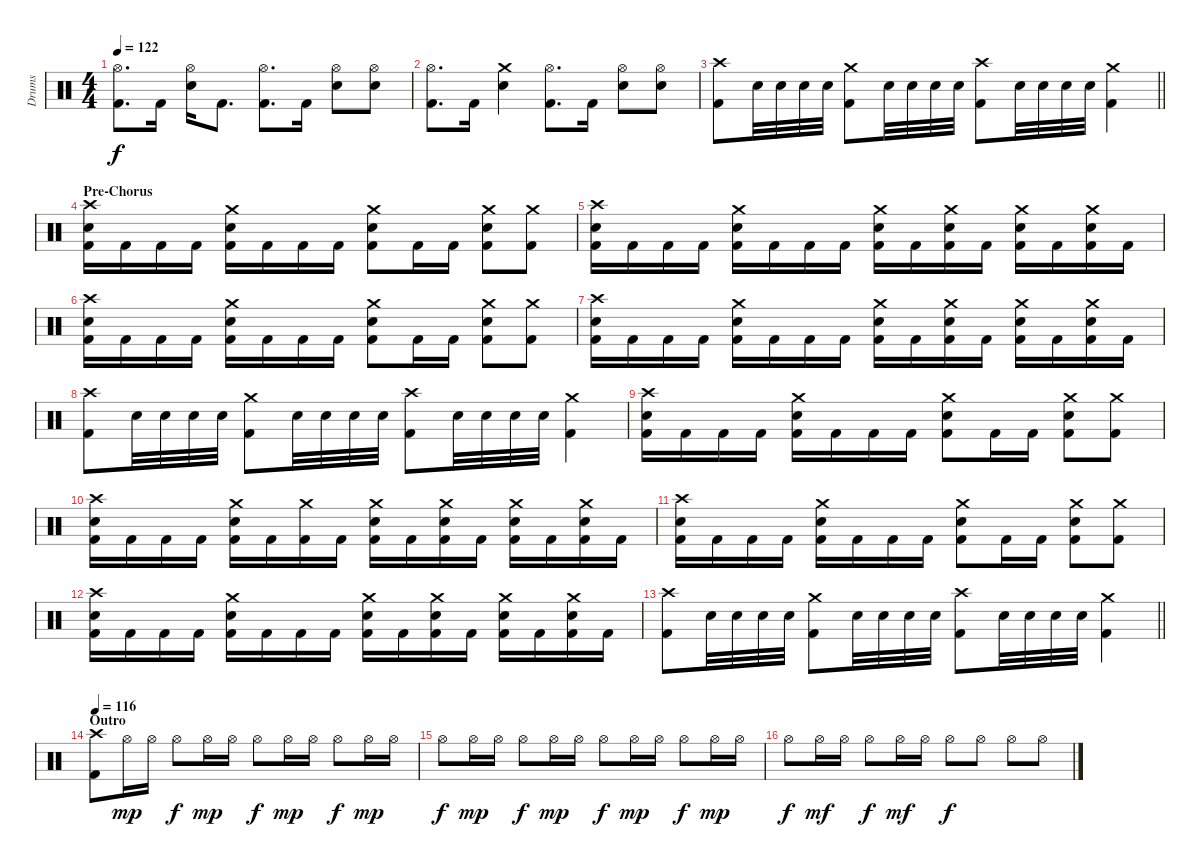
\track ("Drums" "Drums") {instrument percussion}
\staff {score}
\articulation defaults
\ts (4 4)
\tempo 122
\clef neutral
\ks c
("Hi-Hat (open)" "Kick (hit) 2").8{d dy f} "Kick (hit) 2".16 ("Hi-Hat (open)" "Snare (hit) 2").16 "Kick (hit) 2".8{d} ("Hi-Hat (open)" "Kick (hit) 2").8{d} "Kick (hit) 2".16 ("Hi-Hat (open)" "Snare (hit) 2").8 ("Hi-Hat (open)" "Snare (hit) 2").8 |
("Hi-Hat (open)" "Kick (hit) 2").8{d} "Kick (hit) 2".16 ("Crash medium (hit)" "Snare (hit) 2").4 ("Hi-Hat (open)" "Kick (hit) 2").8{d} "Kick (hit) 2".16 ("Hi-Hat (open)" "Snare (hit) 2").8 ("Hi-Hat (open)" "Snare (hit) 2").8 |
\barLineRight lightlight
("Crash high (hit)" "Kick (hit) 2").8 "Snare (hit) 2".32 "Snare (hit) 2".32 "Snare (hit) 2".32 "Snare (hit) 2".32 ("Crash medium (hit)" "Kick (hit) 2").8 "Snare (hit) 2".32 "Snare (hit) 2".32 "Snare (hit) 2".32 "Snare (hit) 2".32 ("Crash high (hit)" "Kick (hit) 2").8 "Snare (hit) 2".32 "Snare (hit) 2".32 "Snare (hit) 2".32 "Snare (hit) 2".32 ("Crash medium (hit)" "Kick (hit) 2").4 |
\section ("" "Pre-Chorus")
("Crash high (hit)" "Snare (hit) 2" "Kick (hit) 2").16 "Kick (hit) 2".16 "Kick (hit) 2".16 "Kick (hit) 2".16 ("Crash medium (hit)" "Snare (hit) 2" "Kick (hit) 2").16 "Kick (hit) 2".16 "Kick (hit) 2".16 "Kick (hit) 2".16 ("Crash medium (hit)" "Snare (hit) 2" "Kick (hit) 2").8 "Kick (hit) 2".16 "Kick (hit) 2".16 ("Crash medium (hit)" "Snare (hit) 2" "Kick (hit) 2").8 ("Crash medium (hit)" "Kick (hit) 2").8 |
("Crash high (hit)" "Snare (hit) 2" "Kick (hit) 2").16 "Kick (hit) 2".16 "Kick (hit) 2".16 "Kick (hit) 2".16 ("Crash medium (hit)" "Snare (hit) 2" "Kick (hit) 2").16 "Kick (hit) 2".16 "Kick (hit) 2".16 "Kick (hit) 2".16 ("Crash medium (hit)" "Snare (hit) 2" "Kick (hit) 2").16 "Kick (hit) 2".16 ("Crash medium (hit)" "Snare (hit) 2" "Kick (hit) 2").16 "Kick (hit) 2".16 ("Crash medium (hit)" "Snare (hit) 2" "Kick (hit) 2").16 "Kick (hit) 2".16 ("Crash medium (hit)" "Snare (hit) 2" "Kick (hit) 2").16 "Kick (hit) 2".16 |
("Crash high (hit)" "Snare (hit) 2" "Kick (hit) 2").16 "Kick (hit) 2".16 "Kick (hit) 2".16 "Kick (hit) 2".16 ("Crash medium (hit)" "Snare (hit) 2" "Kick (hit) 2").16 "Kick (hit) 2".16 "Kick (hit) 2".16 "Kick (hit) 2".16 ("Crash medium (hit)" "Snare (hit) 2" "Kick (hit) 2").8 "Kick (hit) 2".16 "Kick (hit) 2".16 ("Crash medium (hit)" "Snare (hit) 2" "Kick (hit) 2").8 ("Crash medium (hit)" "Kick (hit) 2").8 |
("Crash high (hit)" "Snare (hit) 2" "Kick (hit) 2").16 "Kick (hit) 2".16 "Kick (hit) 2".16 "Kick (hit) 2".16 ("Crash medium (hit)" "Snare (hit) 2" "Kick (hit) 2").16 "Kick (hit) 2".16 "Kick (hit) 2".16 "Kick (hit) 2".16 ("Crash medium (hit)" "Snare (hit) 2" "Kick (hit) 2").16 "Kick (hit) 2".16 ("Crash medium (hit)" "Snare (hit) 2" "Kick (hit) 2").16 "Kick (hit) 2".16 ("Crash medium (hit)" "Snare (hit) 2" "Kick (hit) 2").16 "Kick (hit) 2".16 ("Crash medium (hit)" "Snare (hit) 2" "Kick (hit) 2").16 "Kick (hit) 2".16 |
("Crash high (hit)" "Kick (hit) 2").8 "Snare (hit) 2".32 "Snare (hit) 2".32 "Snare (hit) 2".32 "Snare (hit) 2".32 ("Crash medium (hit)" "Kick (hit) 2").8 "Snare (hit) 2".32 "Snare (hit) 2".32 "Snare (hit) 2".32 "Snare (hit) 2".32 ("Crash high (hit)" "Kick (hit) 2").8 "Snare (hit) 2".32 "Snare (hit) 2".32 "Snare (hit) 2".32 "Snare (hit) 2".32 ("Crash medium (hit)" "Kick (hit) 2").4 |
("Crash high (hit)" "Snare (hit) 2" "Kick (hit) 2").16 "Kick (hit) 2".16 "Kick (hit) 2".16 "Kick (hit) 2".16 ("Crash medium (hit)" "Snare (hit) 2" "Kick (hit) 2").16 "Kick (hit) 2".16 "Kick (hit) 2".16 "Kick (hit) 2".16 ("Crash medium (hit)" "Snare (hit) 2" "Kick (hit) 2").8 "Kick (hit) 2".16 "Kick (hit) 2".16 ("Crash medium (hit)" "Snare (hit) 2" "Kick (hit) 2").8 ("Crash medium (hit)" "Kick (hit) 2").8 |
("Crash high (hit)" "Snare (hit) 2" "Kick (hit) 2").16 "Kick (hit) 2".16 "Kick (hit) 2".16 "Kick (hit) 2".16 ("Crash medium (hit)" "Snare (hit) 2" "Kick (hit) 2").16 "Kick (hit) 2".16 ("Crash medium (hit)" "Kick (hit) 2").16 "Kick (hit) 2".16 ("Crash medium (hit)" "Snare (hit) 2" "Kick (hit) 2").16 "Kick (hit) 2".16 ("Crash medium (hit)" "Snare (hit) 2" "Kick (hit) 2").16 "Kick (hit) 2".16 ("Crash medium (hit)" "Snare (hit) 2" "Kick (hit) 2").16 "Kick (hit) 2".16 ("Crash medium (hit)" "Snare (hit) 2" "Kick (hit) 2").16 "Kick (hit) 2".16 |
("Crash high (hit)" "Snare (hit) 2" "Kick (hit) 2").16 "Kick (hit) 2".16 "Kick (hit) 2".16 "Kick (hit) 2".16 ("Crash medium (hit)" "Snare (hit) 2" "Kick (hit) 2").16 "Kick (hit) 2".16 "Kick (hit) 2".16 "Kick (hit) 2".16 ("Crash medium (hit)" "Snare (hit) 2" "Kick (hit) 2").8 "Kick (hit) 2".16 "Kick (hit) 2".16 ("Crash medium (hit)" "Snare (hit) 2" "Kick (hit) 2").8 ("Crash medium (hit)" "Kick (hit) 2").8 |
("Crash high (hit)" "Snare (hit) 2" "Kick (hit) 2").16 "Kick (hit) 2".16 "Kick (hit) 2".16 "Kick (hit) 2".16 ("Crash medium (hit)" "Snare (hit) 2" "Kick (hit) 2").16 "Kick (hit) 2".16 "Kick (hit) 2".16 "Kick (hit) 2".16 ("Crash medium (hit)" "Snare (hit) 2" "Kick (hit) 2").16 "Kick (hit) 2".16 ("Crash medium (hit)" "Snare (hit) 2" "Kick (hit) 2").16 "Kick (hit) 2".16 ("Crash medium (hit)" "Snare (hit) 2" "Kick (hit) 2").16 "Kick (hit) 2".16 ("Crash medium (hit)" "Snare (hit) 2" "Kick (hit) 2").16 "Kick (hit) 2".16 |
\barLineRight lightlight
("Crash high (hit)" "Kick (hit) 2").8 "Snare (hit) 2".32 "Snare (hit) 2".32 "Snare (hit) 2".32 "Snare (hit) 2".32 ("Crash medium (hit)" "Kick (hit) 2").8 "Snare (hit) 2".32 "Snare (hit) 2".32 "Snare (hit) 2".32 "Snare (hit) 2".32 ("Crash high (hit)" "Kick (hit) 2").8 "Snare (hit) 2".32 "Snare (hit) 2".32 "Snare (hit) 2".32 "Snare (hit) 2".32 ("Crash medium (hit)" "Kick (hit) 2").4 |
\section ("" "Outro")
\tempo 116
("Crash high (hit)" "Kick (hit) 2").8 "Hi-Hat (open)".16{dy mp} "Hi-Hat (open)".16 "Hi-Hat (open)".8{dy f} "Hi-Hat (open)".16{dy mp} "Hi-Hat (open)".16 "Hi-Hat (open)".8{dy f} "Hi-Hat (open)".16{dy mp} "Hi-Hat (open)".16 "Hi-Hat (open)".8{dy f} "Hi-Hat (open)".16{dy mp} "Hi-Hat (open)".16 |
"Hi-Hat (open)".8{dy f} "Hi-Hat (open)".16{dy mp} "Hi-Hat (open)".16 "Hi-Hat (open)".8{dy f} "Hi-Hat (open)".16{dy mp} "Hi-Hat (open)".16 "Hi-Hat (open)".8{dy f} "Hi-Hat (open)".16{dy mp} "Hi-Hat (open)".16 "Hi-Hat (open)".8{dy f} "Hi-Hat (open)".16{dy mp} "Hi-Hat (open)".16 |
"Hi-Hat (open)".8{dy f} "Hi-Hat (open)".16{dy mf} "Hi-Hat (open)".16 "Hi-Hat (open)".8{dy f} "Hi-Hat (open)".16{dy mf} "Hi-Hat (open)".16 "Hi-Hat (open)".8{dy f} "Hi-Hat (open)".8 "Hi-Hat (open)".8 "Hi-Hat (open)".8
